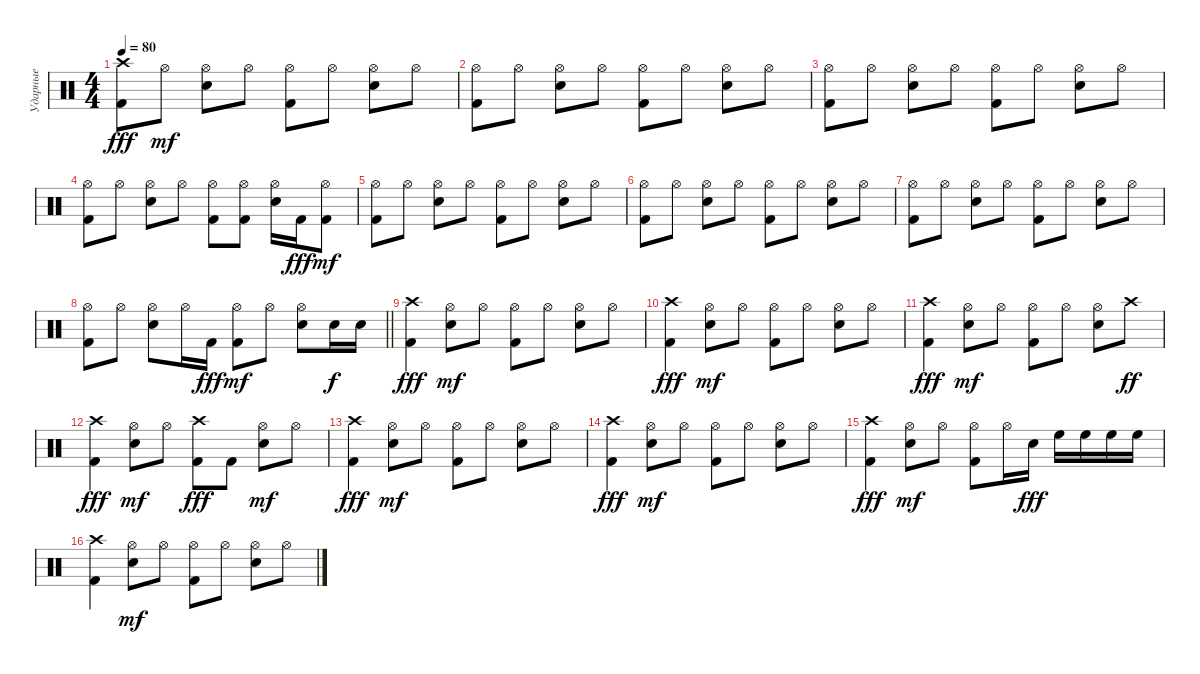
\track ("Ударные" "Ударные") {instrument percussion}
\staff {score}
\articulation defaults
\ts (4 4)
\tempo 80
\clef neutral
\ks c
("Kick (hit) 2" "Crash high (hit)").8{dy fff} "Hi-Hat (open)".8{dy mf} ("Snare (hit) 2" "Hi-Hat (open)").8 "Hi-Hat (open)".8 ("Kick (hit) 2" "Hi-Hat (open)").8 "Hi-Hat (open)".8 ("Snare (hit) 2" "Hi-Hat (open)").8 "Hi-Hat (open)".8 |
("Kick (hit) 2" "Hi-Hat (open)").8 "Hi-Hat (open)".8 ("Snare (hit) 2" "Hi-Hat (open)").8 "Hi-Hat (open)".8 ("Kick (hit) 2" "Hi-Hat (open)").8 "Hi-Hat (open)".8 ("Snare (hit) 2" "Hi-Hat (open)").8 "Hi-Hat (open)".8 |
("Kick (hit) 2" "Hi-Hat (open)").8 "Hi-Hat (open)".8 ("Snare (hit) 2" "Hi-Hat (open)").8 "Hi-Hat (open)".8 ("Kick (hit) 2" "Hi-Hat (open)").8 "Hi-Hat (open)".8 ("Snare (hit) 2" "Hi-Hat (open)").8 "Hi-Hat (open)".8 |
("Kick (hit) 2" "Hi-Hat (open)").8 "Hi-Hat (open)".8 ("Snare (hit) 2" "Hi-Hat (open)").8 "Hi-Hat (open)".8 ("Kick (hit) 2" "Hi-Hat (open)").8 ("Kick (hit) 2" "Hi-Hat (open)").8 ("Snare (hit) 2" "Hi-Hat (open)").16 "Kick (hit) 2".16{dy fff} ("Kick (hit) 2" "Hi-Hat (open)").8{dy mf} |
("Kick (hit) 2" "Hi-Hat (open)").8 "Hi-Hat (open)".8 ("Snare (hit) 2" "Hi-Hat (open)").8 "Hi-Hat (open)".8 ("Kick (hit) 2" "Hi-Hat (open)").8 "Hi-Hat (open)".8 ("Snare (hit) 2" "Hi-Hat (open)").8 "Hi-Hat (open)".8 |
("Kick (hit) 2" "Hi-Hat (open)").8 "Hi-Hat (open)".8 ("Snare (hit) 2" "Hi-Hat (open)").8 "Hi-Hat (open)".8 ("Kick (hit) 2" "Hi-Hat (open)").8 "Hi-Hat (open)".8 ("Snare (hit) 2" "Hi-Hat (open)").8 "Hi-Hat (open)".8 |
("Kick (hit) 2" "Hi-Hat (open)").8 "Hi-Hat (open)".8 ("Snare (hit) 2" "Hi-Hat (open)").8 "Hi-Hat (open)".8 ("Kick (hit) 2" "Hi-Hat (open)").8 "Hi-Hat (open)".8 ("Snare (hit) 2" "Hi-Hat (open)").8 "Hi-Hat (open)".8 |
\barLineRight lightlight
("Kick (hit) 2" "Hi-Hat (open)").8 "Hi-Hat (open)".8 ("Snare (hit) 2" "Hi-Hat (open)").8 "Hi-Hat (open)".16 "Kick (hit) 2".16{dy fff} ("Kick (hit) 2" "Hi-Hat (open)").8{dy mf} "Hi-Hat (open)".8 ("Snare (hit) 2" "Hi-Hat (open)").8 "Snare (hit) 2".16{dy f} "Snare (hit) 2".16 |
("Kick (hit) 2" "Crash high (hit)").4{dy fff} ("Snare (hit) 2" "Hi-Hat (open)").8{dy mf} "Hi-Hat (open)".8 ("Kick (hit) 2" "Hi-Hat (open)").8 "Hi-Hat (open)".8 ("Snare (hit) 2" "Hi-Hat (open)").8 "Hi-Hat (open)".8 |
("Kick (hit) 2" "Crash high (hit)").4{dy fff} ("Snare (hit) 2" "Hi-Hat (open)").8{dy mf} "Hi-Hat (open)".8 ("Kick (hit) 2" "Hi-Hat (open)").8 "Hi-Hat (open)".8 ("Snare (hit) 2" "Hi-Hat (open)").8 "Hi-Hat (open)".8 |
("Kick (hit) 2" "Crash high (hit)").4{dy fff} ("Snare (hit) 2" "Hi-Hat (open)").8{dy mf} "Hi-Hat (open)".8 ("Kick (hit) 2" "Hi-Hat (open)").8 "Hi-Hat (open)".8 ("Snare (hit) 2" "Hi-Hat (open)").8 "Crash high (hit)".8{dy ff} |
("Kick (hit) 2" "Crash high (hit)").4{dy fff} ("Snare (hit) 2" "Hi-Hat (open)").8{dy mf} "Hi-Hat (open)".8 ("Kick (hit) 2" "Crash high (hit)").8{dy fff} "Kick (hit) 2".8 ("Snare (hit) 2" "Hi-Hat (open)").8{dy mf} "Hi-Hat (open)".8 |
("Kick (hit) 2" "Crash high (hit)").4{dy fff} ("Snare (hit) 2" "Hi-Hat (open)").8{dy mf} "Hi-Hat (open)".8 ("Kick (hit) 2" "Hi-Hat (open)").8 "Hi-Hat (open)".8 ("Snare (hit) 2" "Hi-Hat (open)").8 "Hi-Hat (open)".8 |
("Kick (hit) 2" "Crash high (hit)").4{dy fff} ("Snare (hit) 2" "Hi-Hat (open)").8{dy mf} "Hi-Hat (open)".8 ("Kick (hit) 2" "Hi-Hat (open)").8 "Hi-Hat (open)".8 ("Snare (hit) 2" "Hi-Hat (open)").8 "Hi-Hat (open)".8 |
("Kick (hit) 2" "Crash high (hit)").4{dy fff} ("Snare (hit) 2" "Hi-Hat (open)").8{dy mf} "Hi-Hat (open)".8 ("Kick (hit) 2" "Hi-Hat (open)").8 "Hi-Hat (open)".16 "Electric Snare (hit)".16{dy fff} "High Floor Tom (hit)".16 "High Floor Tom (hit)".16 "High Floor Tom (hit)".16 "High Floor Tom (hit)".16 |
("Kick (hit) 2" "Crash high (hit)").4 ("Snare (hit) 2" "Hi-Hat (open)").8{dy mf} "Hi-Hat (open)".8 ("Kick (hit) 2" "Hi-Hat (open)").8 "Hi-Hat (open)".8 ("Snare (hit) 2" "Hi-Hat (open)").8 "Hi-Hat (open)".8
